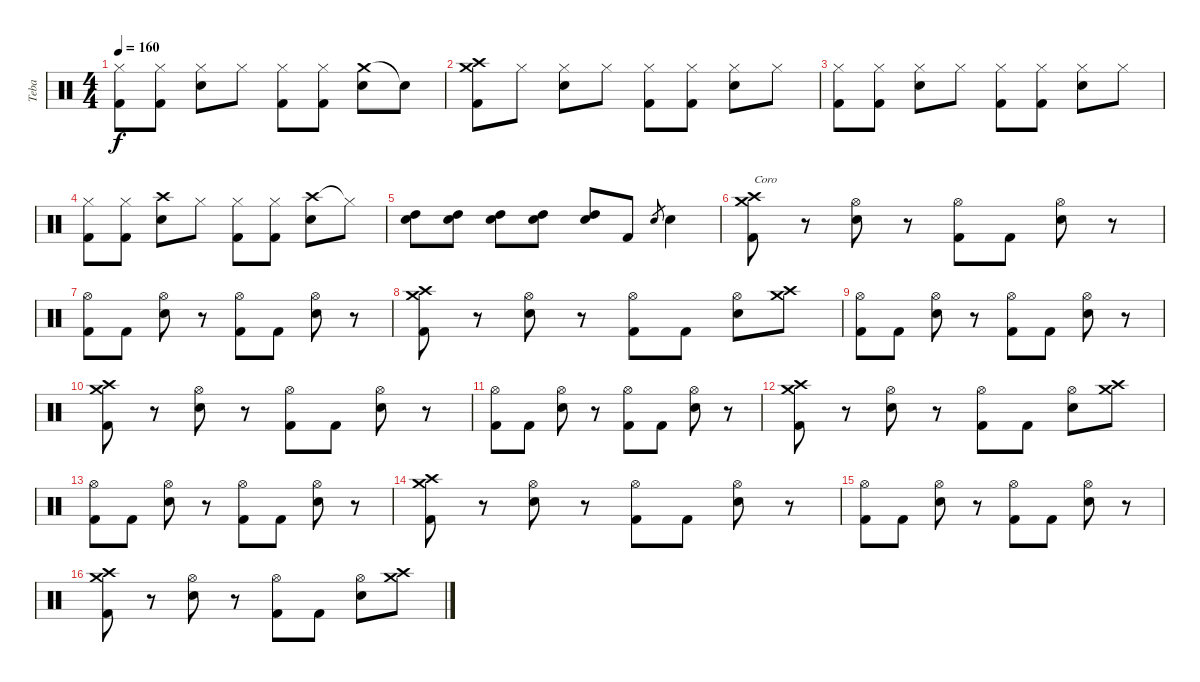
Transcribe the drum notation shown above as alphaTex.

\track ("Teba" "Teba") {instrument percussion}
\staff {score}
\articulation defaults
\ts (4 4)
\tempo 160
\clef neutral
\ks c
("Hi-Hat (closed)" "Kick (hit) 2").8{dy f} ("Hi-Hat (closed)" "Kick (hit) 2").8 ("Hi-Hat (closed)" "Electric Snare (hit)").8 "Hi-Hat (closed)".8 ("Hi-Hat (closed)" "Kick (hit) 2").8 ("Hi-Hat (closed)" "Kick (hit) 2").8 ("Crash medium (hit)" "Electric Snare (hit)").8 "Snare (hit)"{t}.8 |
("Crash medium (hit)" "Crash high (hit)" "Kick (hit) 2").8 "Hi-Hat (closed)".8 ("Hi-Hat (closed)" "Electric Snare (hit)").8 "Hi-Hat (closed)".8 ("Hi-Hat (closed)" "Kick (hit) 2").8 ("Hi-Hat (closed)" "Kick (hit) 2").8 ("Hi-Hat (closed)" "Electric Snare (hit)").8 "Hi-Hat (closed)".8 |
("Hi-Hat (closed)" "Kick (hit) 2").8 ("Hi-Hat (closed)" "Kick (hit) 2").8 ("Hi-Hat (closed)" "Electric Snare (hit)").8 "Hi-Hat (closed)".8 ("Hi-Hat (closed)" "Kick (hit) 2").8 ("Hi-Hat (closed)" "Kick (hit) 2").8 ("Hi-Hat (closed)" "Electric Snare (hit)").8 "Hi-Hat (closed)".8 |
("Hi-Hat (closed)" "Kick (hit) 2").8 ("Hi-Hat (closed)" "Kick (hit) 2").8 ("Crash high (hit)" "Electric Snare (hit)").8 "Hi-Hat (closed)".8 ("Hi-Hat (closed)" "Kick (hit) 2").8 ("Hi-Hat (closed)" "Kick (hit) 2").8 ("Crash high (hit)" "Electric Snare (hit)").8 "Hi-Hat (closed)"{t}.8 |
("High Tom (hit)" "Electric Snare (hit)").8 ("High Tom (hit)" "Electric Snare (hit)").8 ("High Tom (hit)" "Electric Snare (hit)").8 ("High Tom (hit)" "Electric Snare (hit)").8 ("High Tom (hit)" "Electric Snare (hit)").8 "Kick (hit) 2".8 "Electric Snare (hit)".8{gr} "Electric Snare (hit)".4 |
("Crash medium (hit)" "Crash high (hit)" "Kick (hit) 2").8{txt "Coro"} r.8 ("Hi-Hat (open)" "Electric Snare (hit)").8 r.8 ("Hi-Hat (open)" "Kick (hit) 2").8 "Kick (hit) 2".8 ("Hi-Hat (open)" "Electric Snare (hit)").8 r.8 |
("Hi-Hat (open)" "Kick (hit) 2").8 "Kick (hit) 2".8 ("Hi-Hat (open)" "Electric Snare (hit)").8 r.8 ("Hi-Hat (open)" "Kick (hit) 2").8 "Kick (hit) 2".8 ("Hi-Hat (open)" "Electric Snare (hit)").8 r.8 |
("Crash medium (hit)" "Crash high (hit)" "Kick (hit) 2").8 r.8 ("Hi-Hat (open)" "Electric Snare (hit)").8 r.8 ("Hi-Hat (open)" "Kick (hit) 2").8 "Kick (hit) 2".8 ("Hi-Hat (open)" "Electric Snare (hit)").8 ("Crash medium (hit)" "Crash high (hit)").8 |
("Hi-Hat (open)" "Kick (hit) 2").8 "Kick (hit) 2".8 ("Hi-Hat (open)" "Electric Snare (hit)").8 r.8 ("Hi-Hat (open)" "Kick (hit) 2").8 "Kick (hit) 2".8 ("Hi-Hat (open)" "Electric Snare (hit)").8 r.8 |
("Crash medium (hit)" "Crash high (hit)" "Kick (hit) 2").8 r.8 ("Hi-Hat (open)" "Electric Snare (hit)").8 r.8 ("Hi-Hat (open)" "Kick (hit) 2").8 "Kick (hit) 2".8 ("Hi-Hat (open)" "Electric Snare (hit)").8 r.8 |
("Hi-Hat (open)" "Kick (hit) 2").8 "Kick (hit) 2".8 ("Hi-Hat (open)" "Electric Snare (hit)").8 r.8 ("Hi-Hat (open)" "Kick (hit) 2").8 "Kick (hit) 2".8 ("Hi-Hat (open)" "Electric Snare (hit)").8 r.8 |
("Crash medium (hit)" "Crash high (hit)" "Kick (hit) 2").8 r.8 ("Hi-Hat (open)" "Electric Snare (hit)").8 r.8 ("Hi-Hat (open)" "Kick (hit) 2").8 "Kick (hit) 2".8 ("Hi-Hat (open)" "Electric Snare (hit)").8 ("Crash medium (hit)" "Crash high (hit)").8 |
("Hi-Hat (open)" "Kick (hit) 2").8 "Kick (hit) 2".8 ("Hi-Hat (open)" "Electric Snare (hit)").8 r.8 ("Hi-Hat (open)" "Kick (hit) 2").8 "Kick (hit) 2".8 ("Hi-Hat (open)" "Electric Snare (hit)").8 r.8 |
("Crash medium (hit)" "Crash high (hit)" "Kick (hit) 2").8 r.8 ("Hi-Hat (open)" "Electric Snare (hit)").8 r.8 ("Hi-Hat (open)" "Kick (hit) 2").8 "Kick (hit) 2".8 ("Hi-Hat (open)" "Electric Snare (hit)").8 r.8 |
("Hi-Hat (open)" "Kick (hit) 2").8 "Kick (hit) 2".8 ("Hi-Hat (open)" "Electric Snare (hit)").8 r.8 ("Hi-Hat (open)" "Kick (hit) 2").8 "Kick (hit) 2".8 ("Hi-Hat (open)" "Electric Snare (hit)").8 r.8 |
("Crash medium (hit)" "Crash high (hit)" "Kick (hit) 2").8 r.8 ("Hi-Hat (open)" "Electric Snare (hit)").8 r.8 ("Hi-Hat (open)" "Kick (hit) 2").8 "Kick (hit) 2".8 ("Hi-Hat (open)" "Electric Snare (hit)").8 ("Crash medium (hit)" "Crash high (hit)").8
